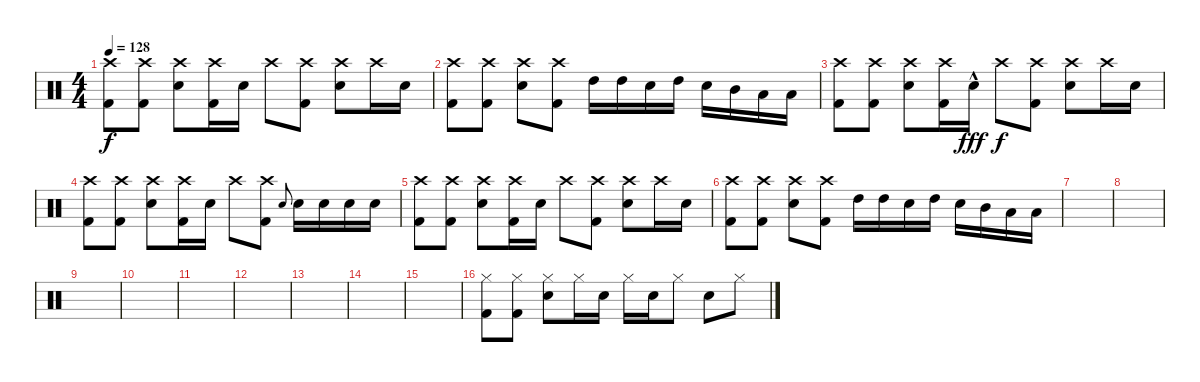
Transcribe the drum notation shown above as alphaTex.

\track "" {solo instrument percussion}
\staff {score}
\articulation defaults
\ts (4 4)
\tempo 128
\clef neutral
\ks c
("Crash high (hit)" "Kick (hit) 2").8{dy f} ("Crash high (hit)" "Kick (hit) 2").8 ("Crash high (hit)" "Snare (hit) 2").8 ("Crash high (hit)" "Kick (hit) 2").16 "Snare (hit) 2".16 "Crash high (hit)".8 ("Crash high (hit)" "Kick (hit) 2").8 ("Crash high (hit)" "Snare (hit) 2").8 "Crash high (hit)".16 "Snare (hit) 2".16 |
("Crash high (hit)" "Kick (hit) 2").8 ("Crash high (hit)" "Kick (hit) 2").8 ("Crash high (hit)" "Snare (hit) 2").8 ("Crash high (hit)" "Kick (hit) 2").8 "High Tom (hit)".16 "High Tom (hit)".16 "Snare (hit) 2".16 "High Tom (hit)".16 "Snare (hit) 2".16 "Mid Tom (hit)".16 "Low Tom (hit)".16 "Low Tom (hit)".16 |
("Crash high (hit)" "Kick (hit) 2").8 ("Crash high (hit)" "Kick (hit) 2").8 ("Crash high (hit)" "Snare (hit) 2").8 ("Crash high (hit)" "Kick (hit) 2").16 "Snare (hit) 2"{hac}.16{dy fff} "Crash high (hit)".8{dy f} ("Crash high (hit)" "Kick (hit) 2").8 ("Crash high (hit)" "Snare (hit) 2").8 "Crash high (hit)".16 "Snare (hit) 2".16 |
("Crash high (hit)" "Kick (hit) 2").8 ("Crash high (hit)" "Kick (hit) 2").8 ("Crash high (hit)" "Snare (hit) 2").8 ("Crash high (hit)" "Kick (hit) 2").16 "Snare (hit) 2".16 "Crash high (hit)".8 ("Crash high (hit)" "Kick (hit) 2").8 "Snare (hit) 2".8{gr onbeat} "Snare (hit) 2".16 "Snare (hit) 2".16 "Snare (hit) 2".16 "Snare (hit) 2".16 |
("Crash high (hit)" "Kick (hit) 2").8 ("Crash high (hit)" "Kick (hit) 2").8 ("Crash high (hit)" "Snare (hit) 2").8 ("Crash high (hit)" "Kick (hit) 2").16 "Snare (hit) 2".16 "Crash high (hit)".8 ("Crash high (hit)" "Kick (hit) 2").8 ("Crash high (hit)" "Snare (hit) 2").8 "Crash high (hit)".16 "Snare (hit) 2".16 |
("Crash high (hit)" "Kick (hit) 2").8 ("Crash high (hit)" "Kick (hit) 2").8 ("Crash high (hit)" "Snare (hit) 2").8 ("Crash high (hit)" "Kick (hit) 2").8 "High Tom (hit)".16 "High Tom (hit)".16 "Snare (hit) 2".16 "High Tom (hit)".16 "Snare (hit) 2".16 "Mid Tom (hit)".16 "Low Tom (hit)".16 "Low Tom (hit)".16 |
|
|
|
|
|
|
|
|
|
("Hi-Hat (closed)" "Kick (hit) 2").8 ("Hi-Hat (closed)" "Kick (hit) 2").8 ("Hi-Hat (closed)" "Snare (hit) 2").8 "Hi-Hat (closed)".16 "Snare (hit) 2".16 "Hi-Hat (closed)".16 "Snare (hit) 2".16 "Hi-Hat (closed)".8 "Snare (hit) 2".8 "Hi-Hat (closed)".8
